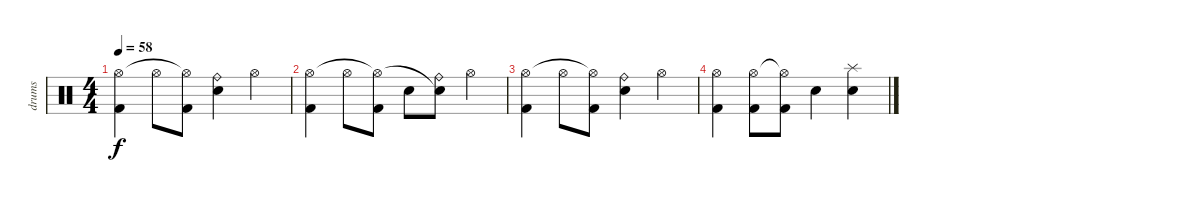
\track ("drums" "drums") {instrument percussion}
\staff {score}
\articulation defaults
\ts (4 4)
\tempo 58
\clef neutral
\ks c
("Kick (hit) 2" "Hi-Hat (open)").4{dy f} "Hi-Hat (open)".8 ("Kick (hit) 2" "Hi-Hat (open)"{t}).8 ("Ride (bell)" "Snare (hit) 2").4 "Hi-Hat (open)".4 |
("Kick (hit) 2" "Hi-Hat (open)").4 "Hi-Hat (open)".8 ("Kick (hit) 2" "Hi-Hat (open)"{t}).8 "Snare (hit) 2".8 ("Ride (bell)" "Snare (hit) 2"{t}).8 "Hi-Hat (open)".4 |
("Kick (hit) 2" "Hi-Hat (open)").4 "Hi-Hat (open)".8 ("Kick (hit) 2" "Hi-Hat (open)"{t}).8 ("Ride (bell)" "Snare (hit) 2").4 "Hi-Hat (open)".4 |
("Kick (hit) 2" "Hi-Hat (open)").4 ("Kick (hit) 2" "Hi-Hat (open)").8 ("Kick (hit) 2" "Hi-Hat (open)"{t}).8 "Snare (hit) 2".4 ("Splash (hit)" "Snare (hit) 2").4
